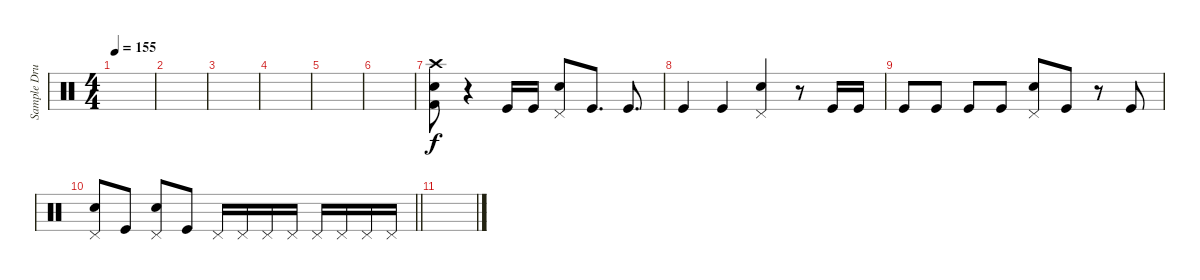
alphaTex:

\track ("Sample Drums" "Sample Dru") {instrument percussion}
\staff {score}
\articulation defaults
\ts (4 4)
\tempo 155
\clef neutral
\ks c
|
|
|
|
|
|
("Electric Snare (hit)" "Kick (hit) 2" "Crash high (hit)").8 r.4 "Kick (hit)".16 "Kick (hit)".16 ("Pedal Hi-Hat (hit)" "Electric Snare (hit)").8 "Kick (hit)".8{d} "Kick (hit)".8{d} |
"Kick (hit)".4 "Kick (hit)".4 ("Pedal Hi-Hat (hit)" "Electric Snare (hit)").4 r.8 "Kick (hit)".16 "Kick (hit)".16 |
"Kick (hit)".8 "Kick (hit)".8 "Kick (hit)".8 "Kick (hit)".8 ("Electric Snare (hit)" "Pedal Hi-Hat (hit)").8 "Kick (hit)".8 r.8 "Kick (hit)".8 |
\barLineRight lightlight
("Pedal Hi-Hat (hit)" "Electric Snare (hit)").8 "Kick (hit)".8 ("Pedal Hi-Hat (hit)" "Electric Snare (hit)").8 "Kick (hit)".8 "Pedal Hi-Hat (hit)".16 "Pedal Hi-Hat (hit)".16 "Pedal Hi-Hat (hit)".16 "Pedal Hi-Hat (hit)".16 "Pedal Hi-Hat (hit)".16 "Pedal Hi-Hat (hit)".16 "Pedal Hi-Hat (hit)".16 "Pedal Hi-Hat (hit)".16 |
\section ("" "")
